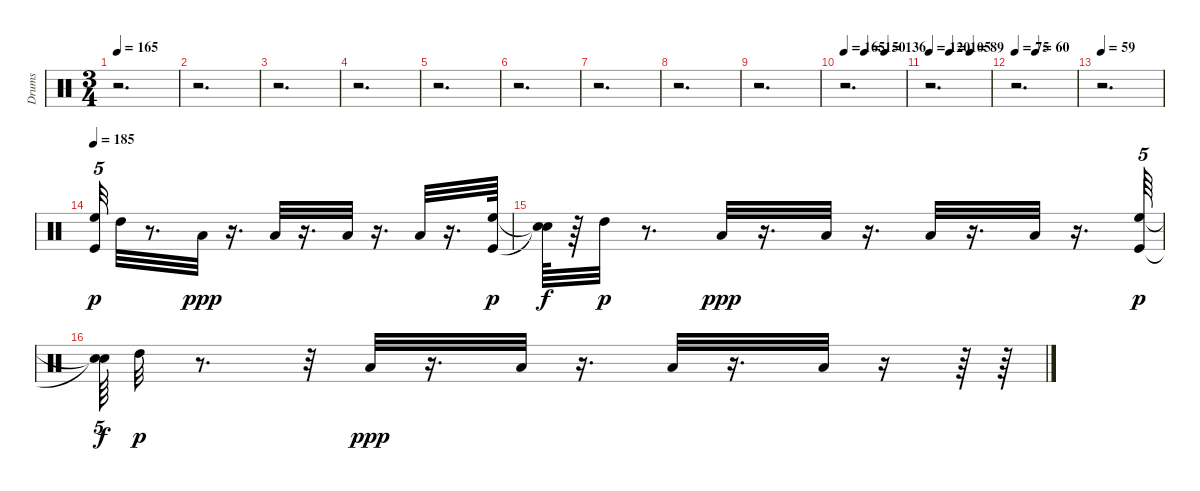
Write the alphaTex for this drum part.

\track ("Drums" "Drums") {instrument percussion}
\staff {score}
\articulation defaults
\ts (3 4)
\tempo 165
\clef neutral
\ks c
r.2{d dy p} |
r.2{d} |
r.2{d} |
r.2{d} |
r.2{d} |
r.2{d} |
r.2{d} |
r.2{d} |
r.2{d} |
\tempo 165
\tempo (150 0.3333333333333333)
\tempo (136 0.6666666666666666)
r.2{d} |
\tempo 120
\tempo (105 0.3333333333333333)
\tempo (89 0.6666666666666666)
r.2{d} |
\tempo 75
\tempo (60 0.3333333333333333)
r.2{d} |
\tempo 59
r.2{d} |
\tempo 185
("High Floor Tom (hit)" "Kick (hit)").32{tu (5 4)} "High Tom (hit)".32 r.8{d} "Low Floor Tom (hit)".32{dy ppp} r.16{d} "Low Floor Tom (hit)".32 r.16{d} "Low Floor Tom (hit)".32 r.16{d} "Low Floor Tom (hit)".32 r.16{d} ("High Floor Tom (hit)" "Kick (hit)").64{dy p} |
("Snare (hit)"{t} "Snare (hit)"{t}).64{dy f} r.64 "High Tom (hit)".32{dy p} r.8{d} "Low Floor Tom (hit)".32{dy ppp} r.16{d} "Low Floor Tom (hit)".32 r.16{d} "Low Floor Tom (hit)".32 r.16{d} "Low Floor Tom (hit)".32 r.16{d} ("High Floor Tom (hit)" "Kick (hit)").64{tu (5 4) dy p} |
("Snare (hit)"{t} "Snare (hit)"{t}).64{tu (5 4) dy f} "High Tom (hit)".32{dy p} r.8{d} r.32 "Low Floor Tom (hit)".32{dy ppp} r.16{d} "Low Floor Tom (hit)".32 r.16{d} "Low Floor Tom (hit)".32 r.16{d} "Low Floor Tom (hit)".32 r.16 r.64 r.64
